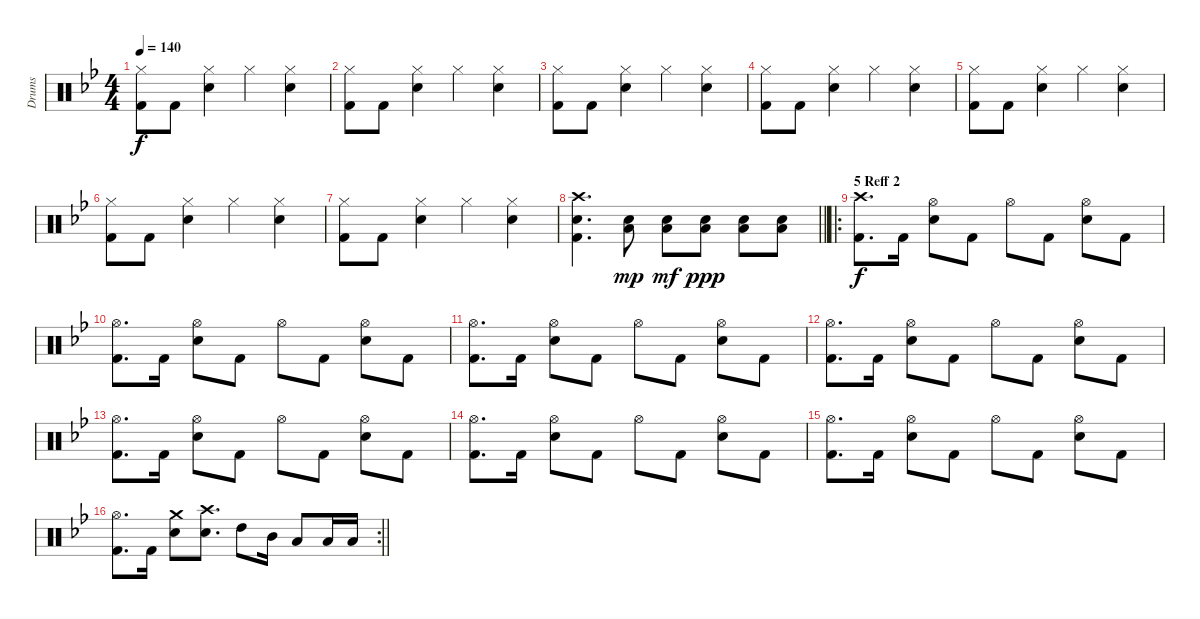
\track ("Drums" "Drums") {instrument percussion}
\staff {score}
\articulation defaults
\ts (4 4)
\tempo 140
\clef neutral
\ks bb
("Kick (hit) 2" "Hi-Hat (closed)").8{dy f} "Kick (hit) 2".8 ("Electric Snare (hit)" "Hi-Hat (closed)").4 "Hi-Hat (closed)".4 ("Electric Snare (hit)" "Hi-Hat (closed)").4 |
("Kick (hit) 2" "Hi-Hat (closed)").8 "Kick (hit) 2".8 ("Electric Snare (hit)" "Hi-Hat (closed)").4 "Hi-Hat (closed)".4 ("Electric Snare (hit)" "Hi-Hat (closed)").4 |
("Kick (hit) 2" "Hi-Hat (closed)").8 "Kick (hit) 2".8 ("Electric Snare (hit)" "Hi-Hat (closed)").4 "Hi-Hat (closed)".4 ("Electric Snare (hit)" "Hi-Hat (closed)").4 |
("Kick (hit) 2" "Hi-Hat (closed)").8 "Kick (hit) 2".8 ("Electric Snare (hit)" "Hi-Hat (closed)").4 "Hi-Hat (closed)".4 ("Electric Snare (hit)" "Hi-Hat (closed)").4 |
("Kick (hit) 2" "Hi-Hat (closed)").8 "Kick (hit) 2".8 ("Electric Snare (hit)" "Hi-Hat (closed)").4 "Hi-Hat (closed)".4 ("Electric Snare (hit)" "Hi-Hat (closed)").4 |
("Kick (hit) 2" "Hi-Hat (closed)").8 "Kick (hit) 2".8 ("Electric Snare (hit)" "Hi-Hat (closed)").4 "Hi-Hat (closed)".4 ("Electric Snare (hit)" "Hi-Hat (closed)").4 |
("Kick (hit) 2" "Hi-Hat (closed)").8 "Kick (hit) 2".8 ("Electric Snare (hit)" "Hi-Hat (closed)").4 "Hi-Hat (closed)".4 ("Electric Snare (hit)" "Hi-Hat (closed)").4 |
\barLineRight lightlight
("Crash high (hit)" "Kick (hit) 2" "Electric Snare (hit)").4{d} ("Low Floor Tom (hit)" "Electric Snare (hit)").8{dy mp} ("Low Floor Tom (hit)" "Electric Snare (hit)").8{dy mf} ("Low Floor Tom (hit)" "Electric Snare (hit)").8{dy ppp} ("Low Floor Tom (hit)" "Electric Snare (hit)").8 ("Low Floor Tom (hit)" "Electric Snare (hit)").8 |
\ro
\section ("" "5 Reff 2")
("Crash high (hit)" "Kick (hit) 2").8{d dy f} "Kick (hit) 2".16 ("Electric Snare (hit)" "Hi-Hat (open)").8 "Kick (hit) 2".8 "Hi-Hat (open)".8 "Kick (hit) 2".8 ("Hi-Hat (open)" "Electric Snare (hit)").8 "Kick (hit) 2".8 |
("Hi-Hat (open)" "Kick (hit) 2").8{d} "Kick (hit) 2".16 ("Electric Snare (hit)" "Hi-Hat (open)").8 "Kick (hit) 2".8 "Hi-Hat (open)".8 "Kick (hit) 2".8 ("Hi-Hat (open)" "Electric Snare (hit)").8 "Kick (hit) 2".8 |
("Hi-Hat (open)" "Kick (hit) 2").8{d} "Kick (hit) 2".16 ("Electric Snare (hit)" "Hi-Hat (open)").8 "Kick (hit) 2".8 "Hi-Hat (open)".8 "Kick (hit) 2".8 ("Hi-Hat (open)" "Electric Snare (hit)").8 "Kick (hit) 2".8 |
("Hi-Hat (open)" "Kick (hit) 2").8{d} "Kick (hit) 2".16 ("Electric Snare (hit)" "Hi-Hat (open)").8 "Kick (hit) 2".8 "Hi-Hat (open)".8 "Kick (hit) 2".8 ("Hi-Hat (open)" "Electric Snare (hit)").8 "Kick (hit) 2".8 |
("Hi-Hat (open)" "Kick (hit) 2").8{d} "Kick (hit) 2".16 ("Electric Snare (hit)" "Hi-Hat (open)").8 "Kick (hit) 2".8 "Hi-Hat (open)".8 "Kick (hit) 2".8 ("Hi-Hat (open)" "Electric Snare (hit)").8 "Kick (hit) 2".8 |
("Hi-Hat (open)" "Kick (hit) 2").8{d} "Kick (hit) 2".16 ("Electric Snare (hit)" "Hi-Hat (open)").8 "Kick (hit) 2".8 "Hi-Hat (open)".8 "Kick (hit) 2".8 ("Hi-Hat (open)" "Electric Snare (hit)").8 "Kick (hit) 2".8 |
("Hi-Hat (open)" "Kick (hit) 2").8{d} "Kick (hit) 2".16 ("Electric Snare (hit)" "Hi-Hat (open)").8 "Kick (hit) 2".8 "Hi-Hat (open)".8 "Kick (hit) 2".8 ("Hi-Hat (open)" "Electric Snare (hit)").8 "Kick (hit) 2".8 |
\rc 2
\barLineRight lightlight
("Hi-Hat (open)" "Kick (hit) 2").8{d} "Kick (hit) 2".16 ("Electric Snare (hit)" "Crash medium (hit)").8 ("Electric Snare (hit)" "Crash high (hit)").8{d} "High Tom (hit)".8 "Mid Tom (hit)".16 "Low Tom (hit)".8 "Low Floor Tom (hit)".16 "Low Floor Tom (hit)".16
